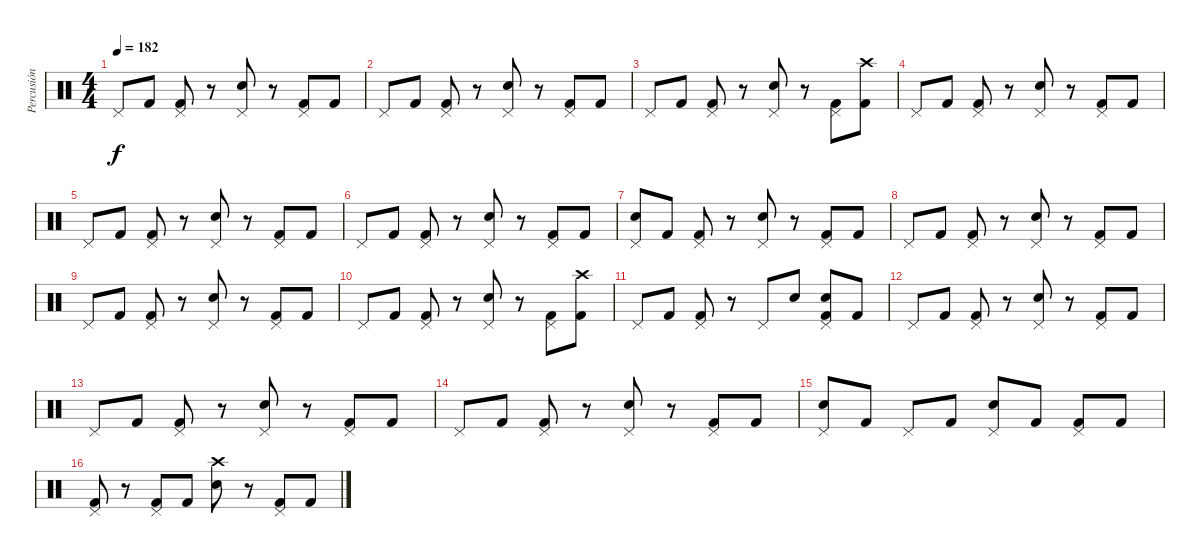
\track ("Percusión" "Percusión") {instrument percussion}
\staff {score}
\articulation defaults
\ts (4 4)
\tempo 182
\clef neutral
\ks c "Pedal Hi-Hat (hit)".8{dy f} "Kick (hit) 2".8
("Pedal Hi-Hat (hit)" "Kick (hit) 2").8 r.8 ("Pedal Hi-Hat (hit)" "Electric Snare (hit)").8 r.8 ("Pedal Hi-Hat (hit)" "Kick (hit) 2").8 "Kick (hit) 2".8 |
"Pedal Hi-Hat (hit)".8 "Kick (hit) 2".8 ("Pedal Hi-Hat (hit)" "Kick (hit) 2").8 r.8 ("Pedal Hi-Hat (hit)" "Electric Snare (hit)").8 r.8 ("Pedal Hi-Hat (hit)" "Kick (hit) 2").8 "Kick (hit) 2".8 |
"Pedal Hi-Hat (hit)".8 "Kick (hit) 2".8 ("Pedal Hi-Hat (hit)" "Kick (hit) 2").8 r.8 ("Pedal Hi-Hat (hit)" "Electric Snare (hit)").8 r.8 ("Pedal Hi-Hat (hit)" "Kick (hit) 2").8 ("Crash high (hit)" "Kick (hit) 2").8 |
"Pedal Hi-Hat (hit)".8 "Kick (hit) 2".8 ("Pedal Hi-Hat (hit)" "Kick (hit) 2").8 r.8 ("Pedal Hi-Hat (hit)" "Electric Snare (hit)").8 r.8 ("Pedal Hi-Hat (hit)" "Kick (hit) 2").8 "Kick (hit) 2".8 |
"Pedal Hi-Hat (hit)".8 "Kick (hit) 2".8 ("Pedal Hi-Hat (hit)" "Kick (hit) 2").8 r.8 ("Pedal Hi-Hat (hit)" "Electric Snare (hit)").8 r.8 ("Pedal Hi-Hat (hit)" "Kick (hit) 2").8 "Kick (hit) 2".8 |
"Pedal Hi-Hat (hit)".8 "Kick (hit) 2".8 ("Pedal Hi-Hat (hit)" "Kick (hit) 2").8 r.8 ("Pedal Hi-Hat (hit)" "Electric Snare (hit)").8 r.8 ("Pedal Hi-Hat (hit)" "Kick (hit) 2").8 "Kick (hit) 2".8 |
("Pedal Hi-Hat (hit)" "Electric Snare (hit)").8 "Kick (hit) 2".8 ("Pedal Hi-Hat (hit)" "Kick (hit) 2").8 r.8 ("Pedal Hi-Hat (hit)" "Electric Snare (hit)").8 r.8 ("Pedal Hi-Hat (hit)" "Kick (hit) 2").8 "Kick (hit) 2".8 |
"Pedal Hi-Hat (hit)".8 "Kick (hit) 2".8 ("Pedal Hi-Hat (hit)" "Kick (hit) 2").8 r.8 ("Pedal Hi-Hat (hit)" "Electric Snare (hit)").8 r.8 ("Pedal Hi-Hat (hit)" "Kick (hit) 2").8 "Kick (hit) 2".8 |
"Pedal Hi-Hat (hit)".8 "Kick (hit) 2".8 ("Pedal Hi-Hat (hit)" "Kick (hit) 2").8 r.8 ("Pedal Hi-Hat (hit)" "Electric Snare (hit)").8 r.8 ("Pedal Hi-Hat (hit)" "Kick (hit) 2").8 "Kick (hit) 2".8 |
"Pedal Hi-Hat (hit)".8 "Kick (hit) 2".8 ("Pedal Hi-Hat (hit)" "Kick (hit) 2").8 r.8 ("Pedal Hi-Hat (hit)" "Electric Snare (hit)").8 r.8 ("Pedal Hi-Hat (hit)" "Kick (hit) 2").8 ("Crash high (hit)" "Kick (hit) 2").8 |
"Pedal Hi-Hat (hit)".8 "Kick (hit) 2".8 ("Pedal Hi-Hat (hit)" "Kick (hit) 2").8 r.8 "Pedal Hi-Hat (hit)".8 "Electric Snare (hit)".8 ("Pedal Hi-Hat (hit)" "Electric Snare (hit)" "Kick (hit) 2").8 "Kick (hit) 2".8 |
"Pedal Hi-Hat (hit)".8 "Kick (hit) 2".8 ("Pedal Hi-Hat (hit)" "Kick (hit) 2").8 r.8 ("Pedal Hi-Hat (hit)" "Electric Snare (hit)").8 r.8 ("Pedal Hi-Hat (hit)" "Kick (hit) 2").8 "Kick (hit) 2".8 |
"Pedal Hi-Hat (hit)".8 "Kick (hit) 2".8 ("Pedal Hi-Hat (hit)" "Kick (hit) 2").8 r.8 ("Pedal Hi-Hat (hit)" "Electric Snare (hit)").8 r.8 ("Pedal Hi-Hat (hit)" "Kick (hit) 2").8 "Kick (hit) 2".8 |
"Pedal Hi-Hat (hit)".8 "Kick (hit) 2".8 ("Pedal Hi-Hat (hit)" "Kick (hit) 2").8 r.8 ("Pedal Hi-Hat (hit)" "Electric Snare (hit)").8 r.8 ("Pedal Hi-Hat (hit)" "Kick (hit) 2").8 "Kick (hit) 2".8 |
("Pedal Hi-Hat (hit)" "Electric Snare (hit)").8 "Kick (hit) 2".8 "Pedal Hi-Hat (hit)".8 "Kick (hit) 2".8 ("Pedal Hi-Hat (hit)" "Electric Snare (hit)").8 "Kick (hit) 2".8 ("Pedal Hi-Hat (hit)" "Kick (hit) 2").8 "Kick (hit) 2".8 |
("Pedal Hi-Hat (hit)" "Kick (hit) 2").8 r.8 ("Pedal Hi-Hat (hit)" "Kick (hit) 2").8 "Kick (hit) 2".8 ("Crash high (hit)" "Electric Snare (hit)").8 r.8 ("Pedal Hi-Hat (hit)" "Kick (hit) 2").8 "Kick (hit) 2".8
